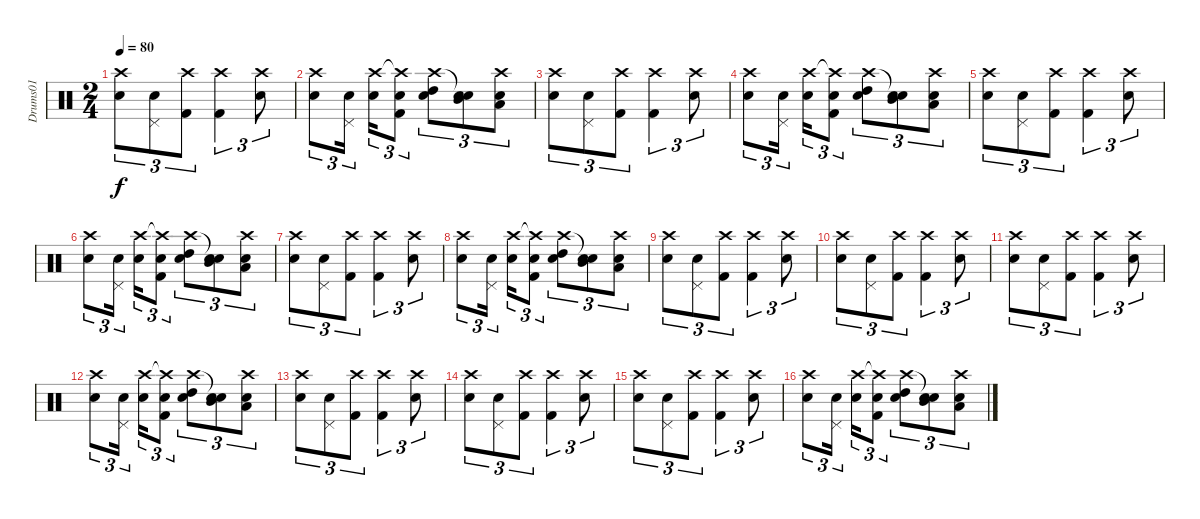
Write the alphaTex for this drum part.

\track ("Drums01" "Drums01") {instrument percussion}
\staff {score}
\articulation defaults
\ts (2 4)
\tempo 80
\clef neutral
\ks c
("Crash high (hit)" "Snare (hit) 2").8{tu (3 2) dy f} ("Pedal Hi-Hat (hit)" "Snare (hit) 2").8{tu (3 2)} ("Crash high (hit)" "Kick (hit) 2").8{tu (3 2)} ("Crash high (hit)" "Kick (hit) 2").4{tu (3 2)} ("Crash high (hit)" "Snare (hit) 2").8{tu (3 2)} |
("Crash high (hit)" "Snare (hit) 2").8{tu (3 2)} ("Pedal Hi-Hat (hit)" "Snare (hit) 2").16{tu (3 2) beam splitsecondary} ("Crash high (hit)" "Snare (hit) 2").16{tu (3 2)} ("Crash high (hit)"{t} "Snare (hit) 2" "Kick (hit) 2").8{tu (3 2)} ("Crash high (hit)" "High Tom (hit)" "Snare (hit) 2").8{tu (3 2)} ("Snare (hit)"{t} "Mid Tom (hit)" "Snare (hit) 2").8{tu (3 2)} ("Crash high (hit)" "Low Tom (hit)" "Snare (hit) 2").8{tu (3 2)} |
("Crash high (hit)" "Snare (hit) 2").8{tu (3 2)} ("Pedal Hi-Hat (hit)" "Snare (hit) 2").8{tu (3 2)} ("Crash high (hit)" "Kick (hit) 2").8{tu (3 2)} ("Crash high (hit)" "Kick (hit) 2").4{tu (3 2)} ("Crash high (hit)" "Snare (hit) 2").8{tu (3 2)} |
("Crash high (hit)" "Snare (hit) 2").8{tu (3 2)} ("Pedal Hi-Hat (hit)" "Snare (hit) 2").16{tu (3 2) beam splitsecondary} ("Crash high (hit)" "Snare (hit) 2").16{tu (3 2)} ("Crash high (hit)"{t} "Snare (hit) 2" "Kick (hit) 2").8{tu (3 2)} ("Crash high (hit)" "High Tom (hit)" "Snare (hit) 2").8{tu (3 2)} ("Snare (hit)"{t} "Mid Tom (hit)" "Snare (hit) 2").8{tu (3 2)} ("Crash high (hit)" "Low Tom (hit)" "Snare (hit) 2").8{tu (3 2)} |
("Crash high (hit)" "Snare (hit) 2").8{tu (3 2)} ("Pedal Hi-Hat (hit)" "Snare (hit) 2").8{tu (3 2)} ("Crash high (hit)" "Kick (hit) 2").8{tu (3 2)} ("Crash high (hit)" "Kick (hit) 2").4{tu (3 2)} ("Crash high (hit)" "Snare (hit) 2").8{tu (3 2)} |
("Crash high (hit)" "Snare (hit) 2").8{tu (3 2)} ("Pedal Hi-Hat (hit)" "Snare (hit) 2").16{tu (3 2) beam splitsecondary} ("Crash high (hit)" "Snare (hit) 2").16{tu (3 2)} ("Crash high (hit)"{t} "Snare (hit) 2" "Kick (hit) 2").8{tu (3 2)} ("Crash high (hit)" "High Tom (hit)" "Snare (hit) 2").8{tu (3 2)} ("Snare (hit)"{t} "Mid Tom (hit)" "Snare (hit) 2").8{tu (3 2)} ("Crash high (hit)" "Low Tom (hit)" "Snare (hit) 2").8{tu (3 2)} |
("Crash high (hit)" "Snare (hit) 2").8{tu (3 2)} ("Pedal Hi-Hat (hit)" "Snare (hit) 2").8{tu (3 2)} ("Crash high (hit)" "Kick (hit) 2").8{tu (3 2)} ("Crash high (hit)" "Kick (hit) 2").4{tu (3 2)} ("Crash high (hit)" "Snare (hit) 2").8{tu (3 2)} |
("Crash high (hit)" "Snare (hit) 2").8{tu (3 2)} ("Pedal Hi-Hat (hit)" "Snare (hit) 2").16{tu (3 2) beam splitsecondary} ("Crash high (hit)" "Snare (hit) 2").16{tu (3 2)} ("Crash high (hit)"{t} "Snare (hit) 2" "Kick (hit) 2").8{tu (3 2)} ("Crash high (hit)" "High Tom (hit)" "Snare (hit) 2").8{tu (3 2)} ("Snare (hit)"{t} "Mid Tom (hit)" "Snare (hit) 2").8{tu (3 2)} ("Crash high (hit)" "Low Tom (hit)" "Snare (hit) 2").8{tu (3 2)} |
("Crash high (hit)" "Snare (hit) 2").8{tu (3 2)} ("Pedal Hi-Hat (hit)" "Snare (hit) 2").8{tu (3 2)} ("Crash high (hit)" "Kick (hit) 2").8{tu (3 2)} ("Crash high (hit)" "Kick (hit) 2").4{tu (3 2)} ("Crash high (hit)" "Snare (hit) 2").8{tu (3 2)} |
("Crash high (hit)" "Snare (hit) 2").8{tu (3 2)} ("Pedal Hi-Hat (hit)" "Snare (hit) 2").8{tu (3 2)} ("Crash high (hit)" "Kick (hit) 2").8{tu (3 2)} ("Crash high (hit)" "Kick (hit) 2").4{tu (3 2)} ("Crash high (hit)" "Snare (hit) 2").8{tu (3 2)} |
("Crash high (hit)" "Snare (hit) 2").8{tu (3 2)} ("Pedal Hi-Hat (hit)" "Snare (hit) 2").8{tu (3 2)} ("Crash high (hit)" "Kick (hit) 2").8{tu (3 2)} ("Crash high (hit)" "Kick (hit) 2").4{tu (3 2)} ("Crash high (hit)" "Snare (hit) 2").8{tu (3 2)} |
("Crash high (hit)" "Snare (hit) 2").8{tu (3 2)} ("Pedal Hi-Hat (hit)" "Snare (hit) 2").16{tu (3 2) beam splitsecondary} ("Crash high (hit)" "Snare (hit) 2").16{tu (3 2)} ("Crash high (hit)"{t} "Snare (hit) 2" "Kick (hit) 2").8{tu (3 2)} ("Crash high (hit)" "High Tom (hit)" "Snare (hit) 2").8{tu (3 2)} ("Snare (hit)"{t} "Mid Tom (hit)" "Snare (hit) 2").8{tu (3 2)} ("Crash high (hit)" "Low Tom (hit)" "Snare (hit) 2").8{tu (3 2)} |
("Crash high (hit)" "Snare (hit) 2").8{tu (3 2)} ("Pedal Hi-Hat (hit)" "Snare (hit) 2").8{tu (3 2)} ("Crash high (hit)" "Kick (hit) 2").8{tu (3 2)} ("Crash high (hit)" "Kick (hit) 2").4{tu (3 2)} ("Crash high (hit)" "Snare (hit) 2").8{tu (3 2)} |
("Crash high (hit)" "Snare (hit) 2").8{tu (3 2)} ("Pedal Hi-Hat (hit)" "Snare (hit) 2").8{tu (3 2)} ("Crash high (hit)" "Kick (hit) 2").8{tu (3 2)} ("Crash high (hit)" "Kick (hit) 2").4{tu (3 2)} ("Crash high (hit)" "Snare (hit) 2").8{tu (3 2)} |
("Crash high (hit)" "Snare (hit) 2").8{tu (3 2)} ("Pedal Hi-Hat (hit)" "Snare (hit) 2").8{tu (3 2)} ("Crash high (hit)" "Kick (hit) 2").8{tu (3 2)} ("Crash high (hit)" "Kick (hit) 2").4{tu (3 2)} ("Crash high (hit)" "Snare (hit) 2").8{tu (3 2)} |
("Crash high (hit)" "Snare (hit) 2").8{tu (3 2)} ("Pedal Hi-Hat (hit)" "Snare (hit) 2").16{tu (3 2) beam splitsecondary} ("Crash high (hit)" "Snare (hit) 2").16{tu (3 2)} ("Crash high (hit)"{t} "Snare (hit) 2" "Kick (hit) 2").8{tu (3 2)} ("Crash high (hit)" "High Tom (hit)" "Snare (hit) 2").8{tu (3 2)} ("Snare (hit)"{t} "Mid Tom (hit)" "Snare (hit) 2").8{tu (3 2)} ("Crash high (hit)" "Low Tom (hit)" "Snare (hit) 2").8{tu (3 2)}
